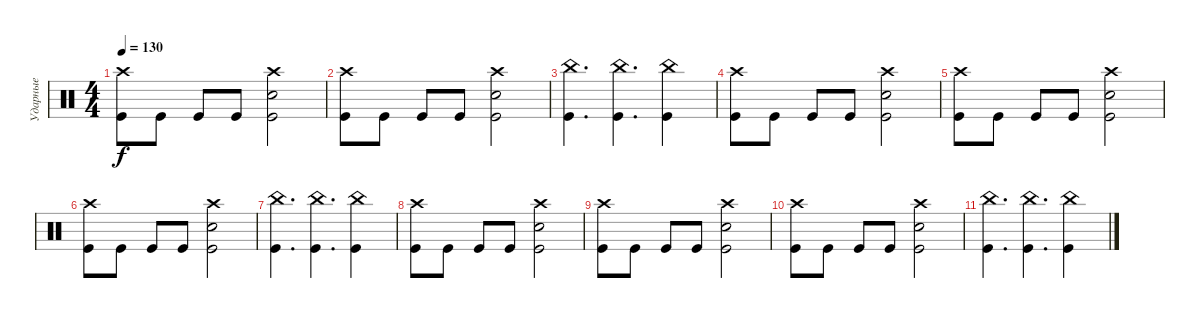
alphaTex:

\track ("Ударные" "Ударные") {instrument percussion}
\staff {score}
\articulation defaults
\ts (4 4)
\tempo 130
\clef neutral
\ks c
("Crash high (hit)" "Kick (hit)").8{dy f} "Kick (hit)".8 "Kick (hit)".8 "Kick (hit)".8 ("Kick (hit)" "Snare (hit) 2" "Crash high (hit)").2 |
("Crash high (hit)" "Kick (hit)").8 "Kick (hit)".8 "Kick (hit)".8 "Kick (hit)".8 ("Kick (hit)" "Snare (hit) 2" "Crash high (hit)").2 |
("Kick (hit)" "China (hit)").4{d} ("Kick (hit)" "China (hit)").4{d} ("Kick (hit)" "China (hit)").4 |
("Crash high (hit)" "Kick (hit)").8 "Kick (hit)".8 "Kick (hit)".8 "Kick (hit)".8 ("Kick (hit)" "Snare (hit) 2" "Crash high (hit)").2 |
("Crash high (hit)" "Kick (hit)").8 "Kick (hit)".8 "Kick (hit)".8 "Kick (hit)".8 ("Kick (hit)" "Snare (hit) 2" "Crash high (hit)").2 |
("Crash high (hit)" "Kick (hit)").8 "Kick (hit)".8 "Kick (hit)".8 "Kick (hit)".8 ("Kick (hit)" "Snare (hit) 2" "Crash high (hit)").2 |
("Kick (hit)" "China (hit)").4{d} ("Kick (hit)" "China (hit)").4{d} ("Kick (hit)" "China (hit)").4 |
("Crash high (hit)" "Kick (hit)").8 "Kick (hit)".8 "Kick (hit)".8 "Kick (hit)".8 ("Kick (hit)" "Snare (hit) 2" "Crash high (hit)").2 |
("Crash high (hit)" "Kick (hit)").8 "Kick (hit)".8 "Kick (hit)".8 "Kick (hit)".8 ("Kick (hit)" "Snare (hit) 2" "Crash high (hit)").2 |
("Crash high (hit)" "Kick (hit)").8 "Kick (hit)".8 "Kick (hit)".8 "Kick (hit)".8 ("Kick (hit)" "Snare (hit) 2" "Crash high (hit)").2 |
("Kick (hit)" "China (hit)").4{d} ("Kick (hit)" "China (hit)").4{d} ("Kick (hit)" "China (hit)").4
